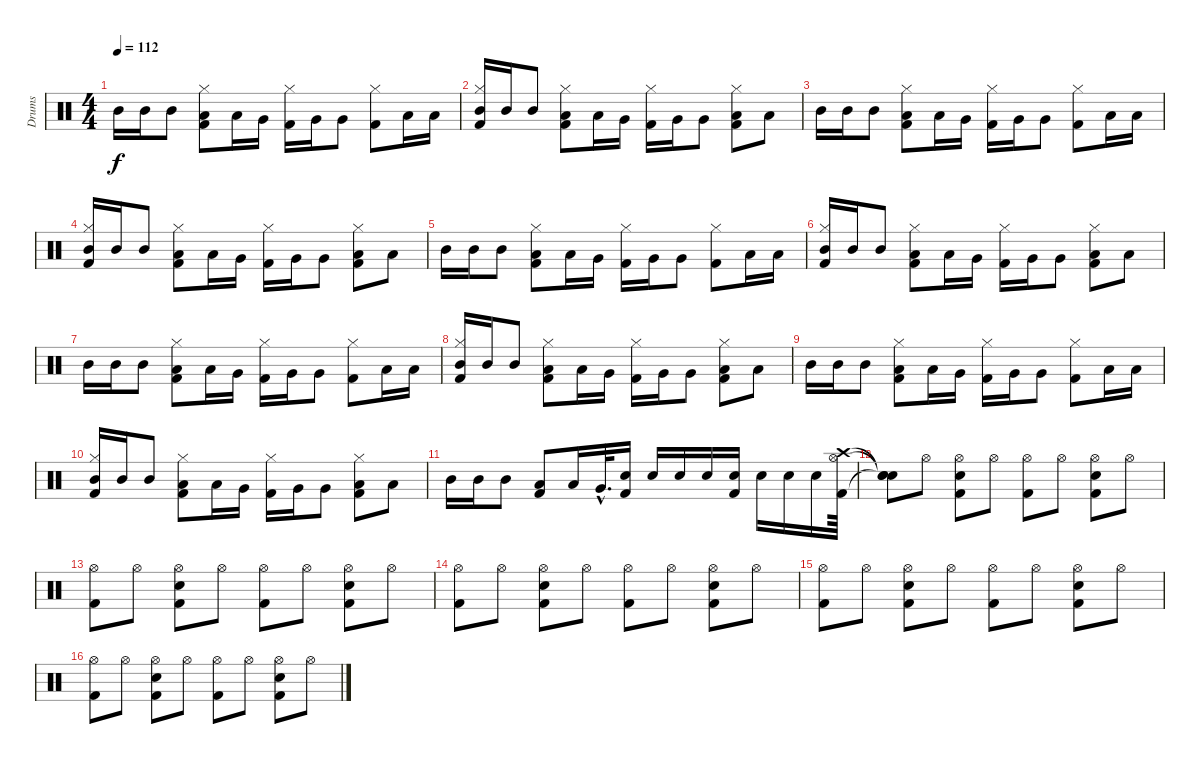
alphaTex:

\track ("Drums" "Drums") {instrument percussion}
\staff {score}
\articulation defaults
\ts (4 4)
\tempo 112
\clef neutral
\ks c "Mid Tom (hit)".16{dy f} "Mid Tom (hit)".16 "Mid Tom (hit)".8
("Hi-Hat (closed)" "Kick (hit) 2" "Low Tom (hit)").8 "Low Tom (hit)".16 "Very Low Tom (hit)".16 ("Kick (hit) 2" "Hi-Hat (closed)").16 "Very Low Tom (hit)".16 "Very Low Tom (hit)".8 ("Kick (hit) 2" "Hi-Hat (closed)").8 "Low Floor Tom (hit)".16 "Low Floor Tom (hit)".16 |
("Hi-Hat (closed)" "Kick (hit) 2" "Mid Tom (hit)").16 "Mid Tom (hit)".16 "Mid Tom (hit)".8 ("Hi-Hat (closed)" "Low Tom (hit)" "Kick (hit) 2").8 "Low Tom (hit)".16 "Very Low Tom (hit)".16 ("Kick (hit) 2" "Hi-Hat (closed)").16 "Very Low Tom (hit)".16 "Very Low Tom (hit)".8 ("Low Floor Tom (hit)" "Kick (hit) 2" "Hi-Hat (closed)").8 "Low Floor Tom (hit)".8 |
"Mid Tom (hit)".16 "Mid Tom (hit)".16 "Mid Tom (hit)".8 ("Hi-Hat (closed)" "Kick (hit) 2" "Low Tom (hit)").8 "Low Tom (hit)".16 "Very Low Tom (hit)".16 ("Kick (hit) 2" "Hi-Hat (closed)").16 "Very Low Tom (hit)".16 "Very Low Tom (hit)".8 ("Kick (hit) 2" "Hi-Hat (closed)").8 "Low Floor Tom (hit)".16 "Low Floor Tom (hit)".16 |
("Hi-Hat (closed)" "Kick (hit) 2" "Mid Tom (hit)").16 "Mid Tom (hit)".16 "Mid Tom (hit)".8 ("Hi-Hat (closed)" "Low Tom (hit)" "Kick (hit) 2").8 "Low Tom (hit)".16 "Very Low Tom (hit)".16 ("Kick (hit) 2" "Hi-Hat (closed)").16 "Very Low Tom (hit)".16 "Very Low Tom (hit)".8 ("Low Floor Tom (hit)" "Kick (hit) 2" "Hi-Hat (closed)").8 "Low Floor Tom (hit)".8 |
"Mid Tom (hit)".16 "Mid Tom (hit)".16 "Mid Tom (hit)".8 ("Hi-Hat (closed)" "Kick (hit) 2" "Low Tom (hit)").8 "Low Tom (hit)".16 "Very Low Tom (hit)".16 ("Kick (hit) 2" "Hi-Hat (closed)").16 "Very Low Tom (hit)".16 "Very Low Tom (hit)".8 ("Kick (hit) 2" "Hi-Hat (closed)").8 "Low Floor Tom (hit)".16 "Low Floor Tom (hit)".16 |
("Hi-Hat (closed)" "Kick (hit) 2" "Mid Tom (hit)").16 "Mid Tom (hit)".16 "Mid Tom (hit)".8 ("Hi-Hat (closed)" "Low Tom (hit)" "Kick (hit) 2").8 "Low Tom (hit)".16 "Very Low Tom (hit)".16 ("Kick (hit) 2" "Hi-Hat (closed)").16 "Very Low Tom (hit)".16 "Very Low Tom (hit)".8 ("Low Floor Tom (hit)" "Kick (hit) 2" "Hi-Hat (closed)").8 "Low Floor Tom (hit)".8 |
"Mid Tom (hit)".16 "Mid Tom (hit)".16 "Mid Tom (hit)".8 ("Hi-Hat (closed)" "Kick (hit) 2" "Low Tom (hit)").8 "Low Tom (hit)".16 "Very Low Tom (hit)".16 ("Kick (hit) 2" "Hi-Hat (closed)").16 "Very Low Tom (hit)".16 "Very Low Tom (hit)".8 ("Kick (hit) 2" "Hi-Hat (closed)").8 "Low Floor Tom (hit)".16 "Low Floor Tom (hit)".16 |
("Hi-Hat (closed)" "Kick (hit) 2" "Mid Tom (hit)").16 "Mid Tom (hit)".16 "Mid Tom (hit)".8 ("Hi-Hat (closed)" "Low Tom (hit)" "Kick (hit) 2").8 "Low Tom (hit)".16 "Very Low Tom (hit)".16 ("Kick (hit) 2" "Hi-Hat (closed)").16 "Very Low Tom (hit)".16 "Very Low Tom (hit)".8 ("Low Floor Tom (hit)" "Kick (hit) 2" "Hi-Hat (closed)").8 "Low Floor Tom (hit)".8 |
"Mid Tom (hit)".16 "Mid Tom (hit)".16 "Mid Tom (hit)".8 ("Hi-Hat (closed)" "Kick (hit) 2" "Low Tom (hit)").8 "Low Tom (hit)".16 "Very Low Tom (hit)".16 ("Kick (hit) 2" "Hi-Hat (closed)").16 "Very Low Tom (hit)".16 "Very Low Tom (hit)".8 ("Kick (hit) 2" "Hi-Hat (closed)").8 "Low Floor Tom (hit)".16 "Low Floor Tom (hit)".16 |
("Hi-Hat (closed)" "Kick (hit) 2" "Mid Tom (hit)").16 "Mid Tom (hit)".16 "Mid Tom (hit)".8 ("Hi-Hat (closed)" "Low Tom (hit)" "Kick (hit) 2").8 "Low Tom (hit)".16 "Very Low Tom (hit)".16 ("Kick (hit) 2" "Hi-Hat (closed)").16 "Very Low Tom (hit)".16 "Very Low Tom (hit)".8 ("Low Floor Tom (hit)" "Kick (hit) 2" "Hi-Hat (closed)").8 "Low Floor Tom (hit)".8 |
"Mid Tom (hit)".16 "Mid Tom (hit)".16 "Mid Tom (hit)".8 ("Kick (hit) 2" "Low Tom (hit)").8 "Low Tom (hit)".16 "Very Low Tom (hit)"{hac}.32{d} ("Snare (hit) 2" "Kick (hit) 2").16 "Snare (hit) 2".16 "Snare (hit) 2".16 "Snare (hit) 2".16 ("Snare (hit) 2" "Kick (hit) 2").16 "Snare (hit) 2".16 "Snare (hit) 2".16 "Snare (hit) 2".16 ("Kick (hit) 2" "Crash high (hit)" "Hi-Hat (open)").64 |
("Snare (hit)"{t} "Snare (hit)"{t} "Snare (hit)"{t}).8 "Hi-Hat (open)".8 ("Hi-Hat (open)" "Kick (hit) 2" "Snare (hit) 2").8 "Hi-Hat (open)".8 ("Kick (hit) 2" "Hi-Hat (open)").8 "Hi-Hat (open)".8 ("Snare (hit) 2" "Hi-Hat (open)" "Kick (hit) 2").8 "Hi-Hat (open)".8 |
("Hi-Hat (open)" "Kick (hit) 2").8 "Hi-Hat (open)".8 ("Hi-Hat (open)" "Kick (hit) 2" "Snare (hit) 2").8 "Hi-Hat (open)".8 ("Kick (hit) 2" "Hi-Hat (open)").8 "Hi-Hat (open)".8 ("Kick (hit) 2" "Snare (hit) 2" "Hi-Hat (open)").8 "Hi-Hat (open)".8 |
("Hi-Hat (open)" "Kick (hit) 2").8 "Hi-Hat (open)".8 ("Hi-Hat (open)" "Kick (hit) 2" "Snare (hit) 2").8 "Hi-Hat (open)".8 ("Kick (hit) 2" "Hi-Hat (open)").8 "Hi-Hat (open)".8 ("Kick (hit) 2" "Snare (hit) 2" "Hi-Hat (open)").8 "Hi-Hat (open)".8 |
("Hi-Hat (open)" "Kick (hit) 2").8 "Hi-Hat (open)".8 ("Hi-Hat (open)" "Kick (hit) 2" "Snare (hit) 2").8 "Hi-Hat (open)".8 ("Kick (hit) 2" "Hi-Hat (open)").8 "Hi-Hat (open)".8 ("Kick (hit) 2" "Snare (hit) 2" "Hi-Hat (open)").8 "Hi-Hat (open)".8 |
("Hi-Hat (open)" "Kick (hit) 2").8 "Hi-Hat (open)".8 ("Hi-Hat (open)" "Kick (hit) 2" "Snare (hit) 2").8 "Hi-Hat (open)".8 ("Kick (hit) 2" "Hi-Hat (open)").8 "Hi-Hat (open)".8 ("Kick (hit) 2" "Snare (hit) 2" "Hi-Hat (open)").8 "Hi-Hat (open)".8
